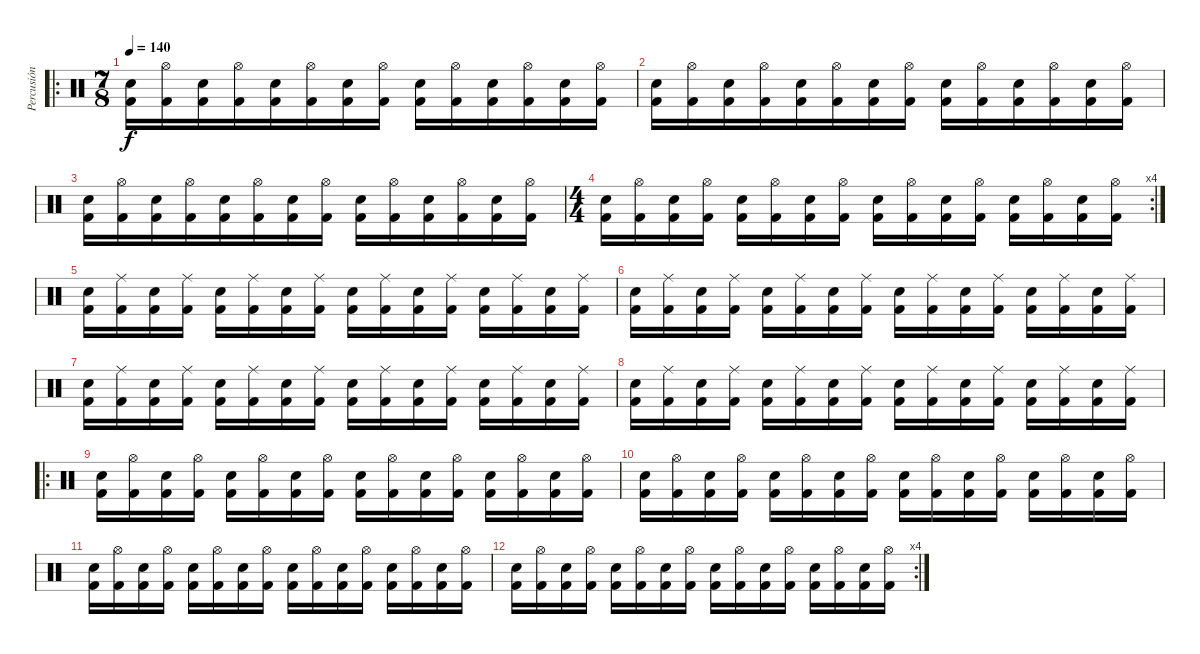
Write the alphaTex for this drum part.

\track ("Percusión" "Percusión") {instrument percussion}
\staff {score}
\articulation defaults
\ro
\ts (7 8)
\tempo 140
\clef neutral
\ks c
("Snare (hit) 2" "Kick (hit) 2").16{dy f} ("Hi-Hat (open)" "Kick (hit) 2").16 ("Snare (hit) 2" "Kick (hit) 2").16 ("Hi-Hat (open)" "Kick (hit) 2").16 ("Snare (hit) 2" "Kick (hit) 2").16 ("Hi-Hat (open)" "Kick (hit) 2").16 ("Snare (hit) 2" "Kick (hit) 2").16 ("Hi-Hat (open)" "Kick (hit) 2").16 ("Snare (hit) 2" "Kick (hit) 2").16 ("Hi-Hat (open)" "Kick (hit) 2").16 ("Snare (hit) 2" "Kick (hit) 2").16 ("Hi-Hat (open)" "Kick (hit) 2").16 ("Snare (hit) 2" "Kick (hit) 2").16 ("Hi-Hat (open)" "Kick (hit) 2").16 |
("Snare (hit) 2" "Kick (hit) 2").16 ("Hi-Hat (open)" "Kick (hit) 2").16 ("Snare (hit) 2" "Kick (hit) 2").16 ("Hi-Hat (open)" "Kick (hit) 2").16 ("Snare (hit) 2" "Kick (hit) 2").16 ("Hi-Hat (open)" "Kick (hit) 2").16 ("Snare (hit) 2" "Kick (hit) 2").16 ("Hi-Hat (open)" "Kick (hit) 2").16 ("Snare (hit) 2" "Kick (hit) 2").16 ("Hi-Hat (open)" "Kick (hit) 2").16 ("Snare (hit) 2" "Kick (hit) 2").16 ("Hi-Hat (open)" "Kick (hit) 2").16 ("Snare (hit) 2" "Kick (hit) 2").16 ("Hi-Hat (open)" "Kick (hit) 2").16 |
("Snare (hit) 2" "Kick (hit) 2").16 ("Hi-Hat (open)" "Kick (hit) 2").16 ("Snare (hit) 2" "Kick (hit) 2").16 ("Hi-Hat (open)" "Kick (hit) 2").16 ("Snare (hit) 2" "Kick (hit) 2").16 ("Hi-Hat (open)" "Kick (hit) 2").16 ("Snare (hit) 2" "Kick (hit) 2").16 ("Hi-Hat (open)" "Kick (hit) 2").16 ("Snare (hit) 2" "Kick (hit) 2").16 ("Hi-Hat (open)" "Kick (hit) 2").16 ("Snare (hit) 2" "Kick (hit) 2").16 ("Hi-Hat (open)" "Kick (hit) 2").16 ("Snare (hit) 2" "Kick (hit) 2").16 ("Hi-Hat (open)" "Kick (hit) 2").16 |
\rc 4
\ts (4 4)
("Snare (hit) 2" "Kick (hit) 2").16 ("Hi-Hat (open)" "Kick (hit) 2").16 ("Snare (hit) 2" "Kick (hit) 2").16 ("Hi-Hat (open)" "Kick (hit) 2").16 ("Snare (hit) 2" "Kick (hit) 2").16 ("Hi-Hat (open)" "Kick (hit) 2").16 ("Snare (hit) 2" "Kick (hit) 2").16 ("Hi-Hat (open)" "Kick (hit) 2").16 ("Snare (hit) 2" "Kick (hit) 2").16 ("Hi-Hat (open)" "Kick (hit) 2").16 ("Snare (hit) 2" "Kick (hit) 2").16 ("Hi-Hat (open)" "Kick (hit) 2").16 ("Snare (hit) 2" "Kick (hit) 2").16 ("Hi-Hat (open)" "Kick (hit) 2").16 ("Snare (hit) 2" "Kick (hit) 2").16 ("Hi-Hat (open)" "Kick (hit) 2").16 |
("Snare (hit) 2" "Kick (hit) 2").16 ("Ride (middle)" "Kick (hit) 2").16 ("Snare (hit) 2" "Kick (hit) 2").16 ("Ride (middle)" "Kick (hit) 2").16 ("Snare (hit) 2" "Kick (hit) 2").16 ("Ride (middle)" "Kick (hit) 2").16 ("Snare (hit) 2" "Kick (hit) 2").16 ("Ride (middle)" "Kick (hit) 2").16 ("Snare (hit) 2" "Kick (hit) 2").16 ("Ride (middle)" "Kick (hit) 2").16 ("Snare (hit) 2" "Kick (hit) 2").16 ("Ride (middle)" "Kick (hit) 2").16 ("Snare (hit) 2" "Kick (hit) 2").16 ("Ride (middle)" "Kick (hit) 2").16 ("Snare (hit) 2" "Kick (hit) 2").16 ("Ride (middle)" "Kick (hit) 2").16 |
("Snare (hit) 2" "Kick (hit) 2").16 ("Ride (middle)" "Kick (hit) 2").16 ("Snare (hit) 2" "Kick (hit) 2").16 ("Ride (middle)" "Kick (hit) 2").16 ("Snare (hit) 2" "Kick (hit) 2").16 ("Ride (middle)" "Kick (hit) 2").16 ("Snare (hit) 2" "Kick (hit) 2").16 ("Ride (middle)" "Kick (hit) 2").16 ("Snare (hit) 2" "Kick (hit) 2").16 ("Ride (middle)" "Kick (hit) 2").16 ("Snare (hit) 2" "Kick (hit) 2").16 ("Ride (middle)" "Kick (hit) 2").16 ("Snare (hit) 2" "Kick (hit) 2").16 ("Ride (middle)" "Kick (hit) 2").16 ("Snare (hit) 2" "Kick (hit) 2").16 ("Ride (middle)" "Kick (hit) 2").16 |
("Snare (hit) 2" "Kick (hit) 2").16 ("Ride (middle)" "Kick (hit) 2").16 ("Snare (hit) 2" "Kick (hit) 2").16 ("Ride (middle)" "Kick (hit) 2").16 ("Snare (hit) 2" "Kick (hit) 2").16 ("Ride (middle)" "Kick (hit) 2").16 ("Snare (hit) 2" "Kick (hit) 2").16 ("Ride (middle)" "Kick (hit) 2").16 ("Snare (hit) 2" "Kick (hit) 2").16 ("Ride (middle)" "Kick (hit) 2").16 ("Snare (hit) 2" "Kick (hit) 2").16 ("Ride (middle)" "Kick (hit) 2").16 ("Snare (hit) 2" "Kick (hit) 2").16 ("Ride (middle)" "Kick (hit) 2").16 ("Snare (hit) 2" "Kick (hit) 2").16 ("Ride (middle)" "Kick (hit) 2").16 |
("Snare (hit) 2" "Kick (hit) 2").16 ("Ride (middle)" "Kick (hit) 2").16 ("Snare (hit) 2" "Kick (hit) 2").16 ("Ride (middle)" "Kick (hit) 2").16 ("Snare (hit) 2" "Kick (hit) 2").16 ("Ride (middle)" "Kick (hit) 2").16 ("Snare (hit) 2" "Kick (hit) 2").16 ("Ride (middle)" "Kick (hit) 2").16 ("Snare (hit) 2" "Kick (hit) 2").16 ("Ride (middle)" "Kick (hit) 2").16 ("Snare (hit) 2" "Kick (hit) 2").16 ("Ride (middle)" "Kick (hit) 2").16 ("Snare (hit) 2" "Kick (hit) 2").16 ("Ride (middle)" "Kick (hit) 2").16 ("Snare (hit) 2" "Kick (hit) 2").16 ("Ride (middle)" "Kick (hit) 2").16 |
\ro
("Snare (hit) 2" "Kick (hit) 2").16 ("Hi-Hat (open)" "Kick (hit) 2").16 ("Snare (hit) 2" "Kick (hit) 2").16 ("Hi-Hat (open)" "Kick (hit) 2").16 ("Snare (hit) 2" "Kick (hit) 2").16 ("Hi-Hat (open)" "Kick (hit) 2").16 ("Snare (hit) 2" "Kick (hit) 2").16 ("Hi-Hat (open)" "Kick (hit) 2").16 ("Snare (hit) 2" "Kick (hit) 2").16 ("Hi-Hat (open)" "Kick (hit) 2").16 ("Snare (hit) 2" "Kick (hit) 2").16 ("Hi-Hat (open)" "Kick (hit) 2").16 ("Snare (hit) 2" "Kick (hit) 2").16 ("Hi-Hat (open)" "Kick (hit) 2").16 ("Snare (hit) 2" "Kick (hit) 2").16 ("Hi-Hat (open)" "Kick (hit) 2").16 |
("Snare (hit) 2" "Kick (hit) 2").16 ("Hi-Hat (open)" "Kick (hit) 2").16 ("Snare (hit) 2" "Kick (hit) 2").16 ("Hi-Hat (open)" "Kick (hit) 2").16 ("Snare (hit) 2" "Kick (hit) 2").16 ("Hi-Hat (open)" "Kick (hit) 2").16 ("Snare (hit) 2" "Kick (hit) 2").16 ("Hi-Hat (open)" "Kick (hit) 2").16 ("Snare (hit) 2" "Kick (hit) 2").16 ("Hi-Hat (open)" "Kick (hit) 2").16 ("Snare (hit) 2" "Kick (hit) 2").16 ("Hi-Hat (open)" "Kick (hit) 2").16 ("Snare (hit) 2" "Kick (hit) 2").16 ("Hi-Hat (open)" "Kick (hit) 2").16 ("Snare (hit) 2" "Kick (hit) 2").16 ("Hi-Hat (open)" "Kick (hit) 2").16 |
("Snare (hit) 2" "Kick (hit) 2").16 ("Hi-Hat (open)" "Kick (hit) 2").16 ("Snare (hit) 2" "Kick (hit) 2").16 ("Hi-Hat (open)" "Kick (hit) 2").16 ("Snare (hit) 2" "Kick (hit) 2").16 ("Hi-Hat (open)" "Kick (hit) 2").16 ("Snare (hit) 2" "Kick (hit) 2").16 ("Hi-Hat (open)" "Kick (hit) 2").16 ("Snare (hit) 2" "Kick (hit) 2").16 ("Hi-Hat (open)" "Kick (hit) 2").16 ("Snare (hit) 2" "Kick (hit) 2").16 ("Hi-Hat (open)" "Kick (hit) 2").16 ("Snare (hit) 2" "Kick (hit) 2").16 ("Hi-Hat (open)" "Kick (hit) 2").16 ("Snare (hit) 2" "Kick (hit) 2").16 ("Hi-Hat (open)" "Kick (hit) 2").16 |
\rc 4
("Snare (hit) 2" "Kick (hit) 2").16 ("Hi-Hat (open)" "Kick (hit) 2").16 ("Snare (hit) 2" "Kick (hit) 2").16 ("Hi-Hat (open)" "Kick (hit) 2").16 ("Snare (hit) 2" "Kick (hit) 2").16 ("Hi-Hat (open)" "Kick (hit) 2").16 ("Snare (hit) 2" "Kick (hit) 2").16 ("Hi-Hat (open)" "Kick (hit) 2").16 ("Snare (hit) 2" "Kick (hit) 2").16 ("Hi-Hat (open)" "Kick (hit) 2").16 ("Snare (hit) 2" "Kick (hit) 2").16 ("Hi-Hat (open)" "Kick (hit) 2").16 ("Snare (hit) 2" "Kick (hit) 2").16 ("Hi-Hat (open)" "Kick (hit) 2").16 ("Snare (hit) 2" "Kick (hit) 2").16 ("Hi-Hat (open)" "Kick (hit) 2").16
